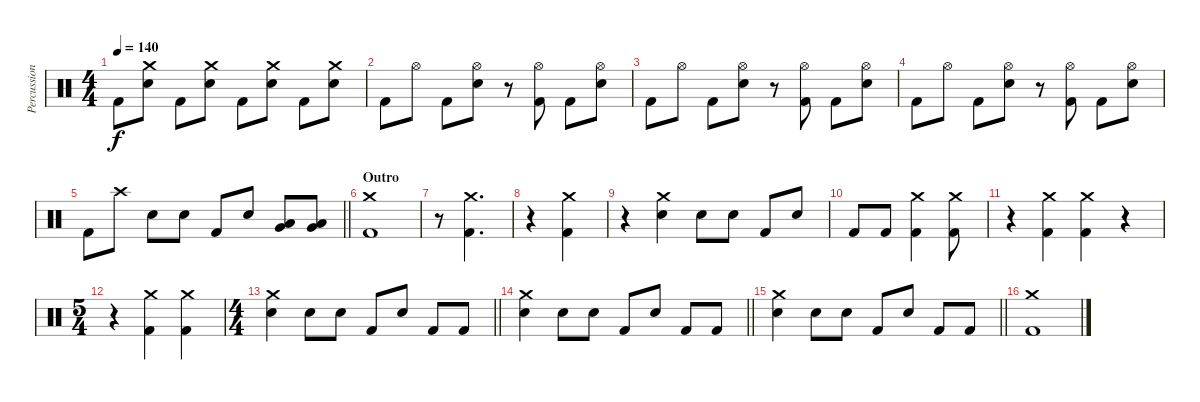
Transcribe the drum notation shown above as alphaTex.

\track ("Percussion" "Percussion") {instrument percussion}
\staff {score}
\articulation defaults
\ts (4 4)
\tempo 140
\clef neutral
\ks c "Kick (hit) 2".8{dy f}
("Crash medium (hit)" "Electric Snare (hit)").8 "Kick (hit) 2".8 ("Crash medium (hit)" "Electric Snare (hit)").8 "Kick (hit) 2".8 ("Crash medium (hit)" "Electric Snare (hit)").8 "Kick (hit) 2".8 ("Crash medium (hit)" "Electric Snare (hit)").8 |
"Kick (hit) 2".8 "Hi-Hat (open)".8 "Kick (hit) 2".8 ("Hi-Hat (open)" "Electric Snare (hit)").8 r.8 ("Hi-Hat (open)" "Kick (hit) 2").8 "Kick (hit) 2".8 ("Hi-Hat (open)" "Electric Snare (hit)").8 |
"Kick (hit) 2".8 "Hi-Hat (open)".8 "Kick (hit) 2".8 ("Hi-Hat (open)" "Electric Snare (hit)").8 r.8 ("Hi-Hat (open)" "Kick (hit) 2").8 "Kick (hit) 2".8 ("Hi-Hat (open)" "Electric Snare (hit)").8 |
"Kick (hit) 2".8 "Hi-Hat (open)".8 "Kick (hit) 2".8 ("Hi-Hat (open)" "Electric Snare (hit)").8 r.8 ("Hi-Hat (open)" "Kick (hit) 2").8 "Kick (hit) 2".8 ("Hi-Hat (open)" "Electric Snare (hit)").8 |
\barLineRight lightlight "Kick (hit) 2".8 "Crash high (hit)".8 "Electric Snare (hit)".8 "Electric Snare (hit)".8 "Kick (hit) 2".8 "Electric Snare (hit)".8
("Low Tom (hit)" "Very Low Tom (hit)").8 ("Low Tom (hit)" "Very Low Tom (hit)").8 |
\section ("" "Outro")
("Kick (hit) 2" "Crash medium (hit)").1 |
r.8 ("Kick (hit) 2" "Crash medium (hit)").4{d} |
r.4 ("Kick (hit) 2" "Crash medium (hit)").4 |
r.4 ("Crash medium (hit)" "Electric Snare (hit)").4 "Electric Snare (hit)".8 "Electric Snare (hit)".8 "Kick (hit) 2".8 "Electric Snare (hit)".8 |
"Kick (hit) 2".8 "Kick (hit) 2".8 ("Crash medium (hit)" "Kick (hit) 2").4 ("Kick (hit) 2" "Crash medium (hit)").8 |
r.4 ("Kick (hit) 2" "Crash medium (hit)").4 ("Kick (hit) 2" "Crash medium (hit)").4 r.4 |
\ts (5 4)
r.4 ("Crash medium (hit)" "Kick (hit) 2").4 ("Crash medium (hit)" "Kick (hit) 2").4 |
\ts (4 4)
\barLineRight lightlight
("Crash medium (hit)" "Electric Snare (hit)").4 "Electric Snare (hit)".8 "Electric Snare (hit)".8 "Kick (hit) 2".8 "Electric Snare (hit)".8 "Kick (hit) 2".8 "Kick (hit) 2".8 |
\barLineRight lightlight
("Crash medium (hit)" "Electric Snare (hit)").4 "Electric Snare (hit)".8 "Electric Snare (hit)".8 "Kick (hit) 2".8 "Electric Snare (hit)".8 "Kick (hit) 2".8 "Kick (hit) 2".8 |
\barLineRight lightlight
("Crash medium (hit)" "Electric Snare (hit)").4 "Electric Snare (hit)".8 "Electric Snare (hit)".8 "Kick (hit) 2".8 "Electric Snare (hit)".8 "Kick (hit) 2".8 "Kick (hit) 2".8 |
("Kick (hit) 2" "Crash medium (hit)").1
